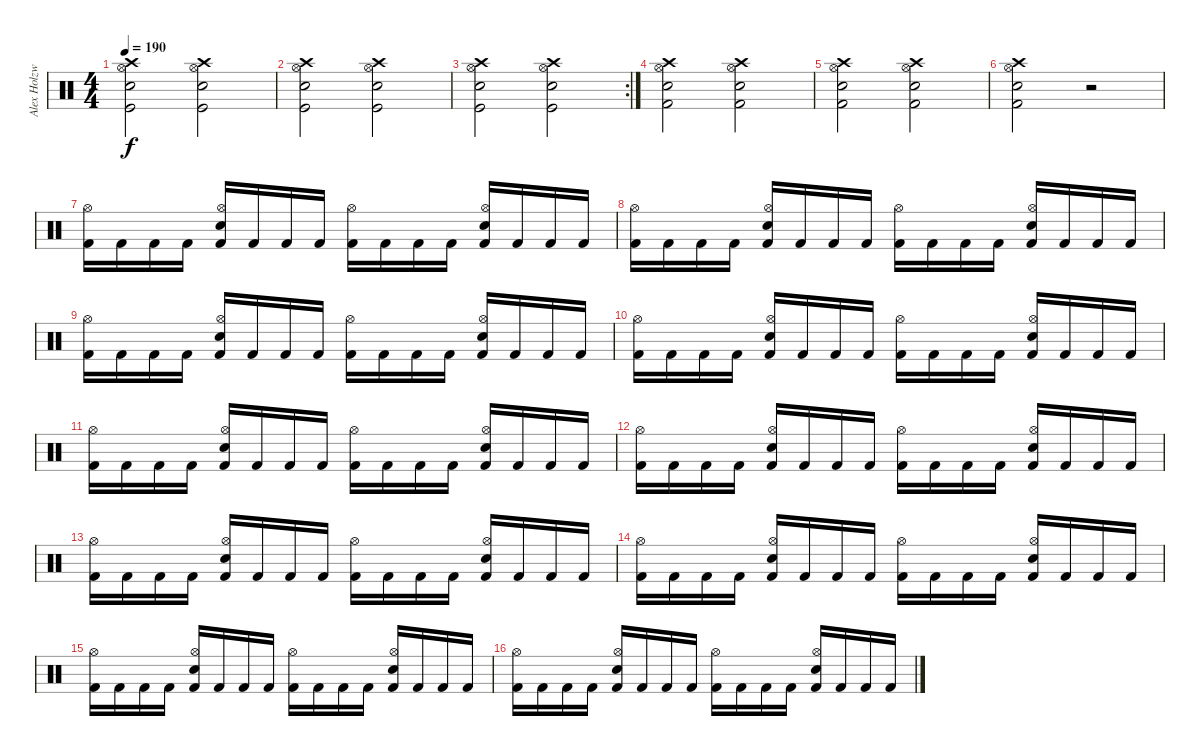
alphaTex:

\track ("Alex Holzwarth" "Alex Holzw") {instrument percussion}
\staff {score}
\articulation defaults
\ts (4 4)
\tempo 190
\clef neutral
\ks c
("Kick (hit)" "Crash high (hit)" "Electric Snare (hit)" "Hi-Hat (open)").2{dy f} ("Kick (hit)" "Crash high (hit)" "Electric Snare (hit)" "Hi-Hat (open)").2 |
("Kick (hit)" "Crash high (hit)" "Electric Snare (hit)" "Hi-Hat (open)").2 ("Kick (hit)" "Crash high (hit)" "Electric Snare (hit)" "Hi-Hat (open)").2 |
\rc 2
("Kick (hit)" "Crash high (hit)" "Electric Snare (hit)" "Hi-Hat (open)").2 ("Kick (hit)" "Crash high (hit)" "Electric Snare (hit)" "Hi-Hat (open)").2 |
("Kick (hit) 2" "Crash high (hit)" "Electric Snare (hit)" "Hi-Hat (open)").2 ("Kick (hit) 2" "Crash high (hit)" "Electric Snare (hit)" "Hi-Hat (open)").2 |
("Kick (hit) 2" "Crash high (hit)" "Electric Snare (hit)" "Hi-Hat (open)").2 ("Kick (hit) 2" "Crash high (hit)" "Electric Snare (hit)" "Hi-Hat (open)").2 |
("Kick (hit) 2" "Crash high (hit)" "Electric Snare (hit)" "Hi-Hat (open)").2 r.2 |
("Kick (hit) 2" "Hi-Hat (open)").16 "Kick (hit) 2".16 "Kick (hit) 2".16 "Kick (hit) 2".16 ("Kick (hit) 2" "Electric Snare (hit)" "Hi-Hat (open)").16 "Kick (hit) 2".16 "Kick (hit) 2".16 "Kick (hit) 2".16 ("Kick (hit) 2" "Hi-Hat (open)").16 "Kick (hit) 2".16 "Kick (hit) 2".16 "Kick (hit) 2".16 ("Kick (hit) 2" "Electric Snare (hit)" "Hi-Hat (open)").16 "Kick (hit) 2".16 "Kick (hit) 2".16 "Kick (hit) 2".16 |
("Kick (hit) 2" "Hi-Hat (open)").16 "Kick (hit) 2".16 "Kick (hit) 2".16 "Kick (hit) 2".16 ("Kick (hit) 2" "Electric Snare (hit)" "Hi-Hat (open)").16 "Kick (hit) 2".16 "Kick (hit) 2".16 "Kick (hit) 2".16 ("Kick (hit) 2" "Hi-Hat (open)").16 "Kick (hit) 2".16 "Kick (hit) 2".16 "Kick (hit) 2".16 ("Kick (hit) 2" "Electric Snare (hit)" "Hi-Hat (open)").16 "Kick (hit) 2".16 "Kick (hit) 2".16 "Kick (hit) 2".16 |
("Kick (hit) 2" "Hi-Hat (open)").16 "Kick (hit) 2".16 "Kick (hit) 2".16 "Kick (hit) 2".16 ("Kick (hit) 2" "Electric Snare (hit)" "Hi-Hat (open)").16 "Kick (hit) 2".16 "Kick (hit) 2".16 "Kick (hit) 2".16 ("Kick (hit) 2" "Hi-Hat (open)").16 "Kick (hit) 2".16 "Kick (hit) 2".16 "Kick (hit) 2".16 ("Kick (hit) 2" "Electric Snare (hit)" "Hi-Hat (open)").16 "Kick (hit) 2".16 "Kick (hit) 2".16 "Kick (hit) 2".16 |
("Kick (hit) 2" "Hi-Hat (open)").16 "Kick (hit) 2".16 "Kick (hit) 2".16 "Kick (hit) 2".16 ("Kick (hit) 2" "Electric Snare (hit)" "Hi-Hat (open)").16 "Kick (hit) 2".16 "Kick (hit) 2".16 "Kick (hit) 2".16 ("Kick (hit) 2" "Hi-Hat (open)").16 "Kick (hit) 2".16 "Kick (hit) 2".16 "Kick (hit) 2".16 ("Kick (hit) 2" "Electric Snare (hit)" "Hi-Hat (open)").16 "Kick (hit) 2".16 "Kick (hit) 2".16 "Kick (hit) 2".16 |
("Kick (hit) 2" "Hi-Hat (open)").16 "Kick (hit) 2".16 "Kick (hit) 2".16 "Kick (hit) 2".16 ("Kick (hit) 2" "Electric Snare (hit)" "Hi-Hat (open)").16 "Kick (hit) 2".16 "Kick (hit) 2".16 "Kick (hit) 2".16 ("Kick (hit) 2" "Hi-Hat (open)").16 "Kick (hit) 2".16 "Kick (hit) 2".16 "Kick (hit) 2".16 ("Kick (hit) 2" "Electric Snare (hit)" "Hi-Hat (open)").16 "Kick (hit) 2".16 "Kick (hit) 2".16 "Kick (hit) 2".16 |
("Kick (hit) 2" "Hi-Hat (open)").16 "Kick (hit) 2".16 "Kick (hit) 2".16 "Kick (hit) 2".16 ("Kick (hit) 2" "Electric Snare (hit)" "Hi-Hat (open)").16 "Kick (hit) 2".16 "Kick (hit) 2".16 "Kick (hit) 2".16 ("Kick (hit) 2" "Hi-Hat (open)").16 "Kick (hit) 2".16 "Kick (hit) 2".16 "Kick (hit) 2".16 ("Kick (hit) 2" "Electric Snare (hit)" "Hi-Hat (open)").16 "Kick (hit) 2".16 "Kick (hit) 2".16 "Kick (hit) 2".16 |
("Kick (hit) 2" "Hi-Hat (open)").16 "Kick (hit) 2".16 "Kick (hit) 2".16 "Kick (hit) 2".16 ("Kick (hit) 2" "Electric Snare (hit)" "Hi-Hat (open)").16 "Kick (hit) 2".16 "Kick (hit) 2".16 "Kick (hit) 2".16 ("Kick (hit) 2" "Hi-Hat (open)").16 "Kick (hit) 2".16 "Kick (hit) 2".16 "Kick (hit) 2".16 ("Kick (hit) 2" "Electric Snare (hit)" "Hi-Hat (open)").16 "Kick (hit) 2".16 "Kick (hit) 2".16 "Kick (hit) 2".16 |
("Kick (hit) 2" "Hi-Hat (open)").16 "Kick (hit) 2".16 "Kick (hit) 2".16 "Kick (hit) 2".16 ("Kick (hit) 2" "Electric Snare (hit)" "Hi-Hat (open)").16 "Kick (hit) 2".16 "Kick (hit) 2".16 "Kick (hit) 2".16 ("Kick (hit) 2" "Hi-Hat (open)").16 "Kick (hit) 2".16 "Kick (hit) 2".16 "Kick (hit) 2".16 ("Kick (hit) 2" "Electric Snare (hit)" "Hi-Hat (open)").16 "Kick (hit) 2".16 "Kick (hit) 2".16 "Kick (hit) 2".16 |
("Kick (hit) 2" "Hi-Hat (open)").16 "Kick (hit) 2".16 "Kick (hit) 2".16 "Kick (hit) 2".16 ("Kick (hit) 2" "Electric Snare (hit)" "Hi-Hat (open)").16 "Kick (hit) 2".16 "Kick (hit) 2".16 "Kick (hit) 2".16 ("Kick (hit) 2" "Hi-Hat (open)").16 "Kick (hit) 2".16 "Kick (hit) 2".16 "Kick (hit) 2".16 ("Kick (hit) 2" "Electric Snare (hit)" "Hi-Hat (open)").16 "Kick (hit) 2".16 "Kick (hit) 2".16 "Kick (hit) 2".16 |
("Kick (hit) 2" "Hi-Hat (open)").16 "Kick (hit) 2".16 "Kick (hit) 2".16 "Kick (hit) 2".16 ("Kick (hit) 2" "Electric Snare (hit)" "Hi-Hat (open)").16 "Kick (hit) 2".16 "Kick (hit) 2".16 "Kick (hit) 2".16 ("Kick (hit) 2" "Hi-Hat (open)").16 "Kick (hit) 2".16 "Kick (hit) 2".16 "Kick (hit) 2".16 ("Kick (hit) 2" "Electric Snare (hit)" "Hi-Hat (open)").16 "Kick (hit) 2".16 "Kick (hit) 2".16 "Kick (hit) 2".16
